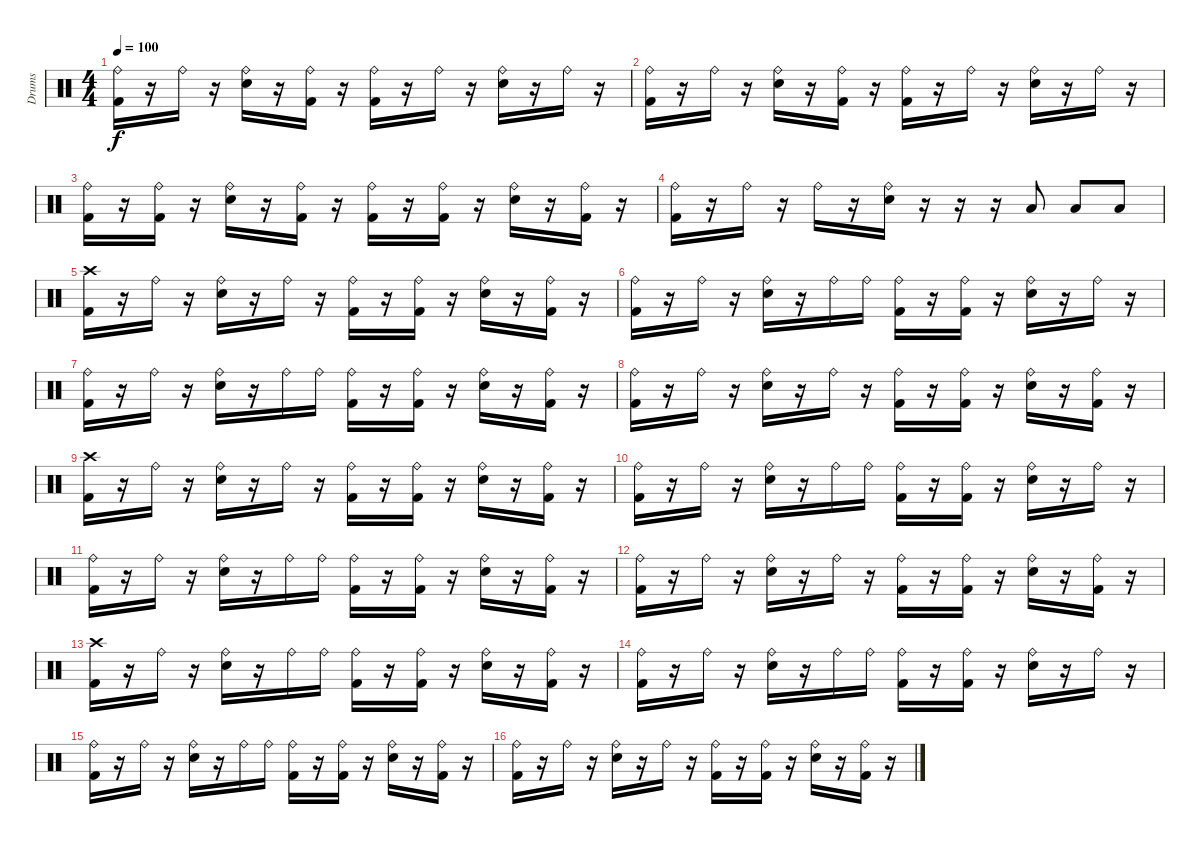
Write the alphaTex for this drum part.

\track ("Drums" "Drums") {instrument percussion}
\staff {score}
\articulation defaults
\ts (4 4)
\tempo 100
\clef neutral
\ks c
("Ride (bell)" "Kick (hit) 2").16{dy f} r.16 "Ride (bell)".16 r.16 ("Ride (bell)" "Snare (hit) 2").16 r.16 ("Ride (bell)" "Kick (hit) 2").16 r.16 ("Ride (bell)" "Kick (hit) 2").16 r.16 "Ride (bell)".16 r.16 ("Ride (bell)" "Snare (hit) 2").16 r.16 "Ride (bell)".16 r.16 |
("Ride (bell)" "Kick (hit) 2").16 r.16 "Ride (bell)".16 r.16 ("Ride (bell)" "Snare (hit) 2").16 r.16 ("Ride (bell)" "Kick (hit) 2").16 r.16 ("Ride (bell)" "Kick (hit) 2").16 r.16 "Ride (bell)".16 r.16 ("Ride (bell)" "Snare (hit) 2").16 r.16 "Ride (bell)".16 r.16 |
("Ride (bell)" "Kick (hit) 2").16 r.16 ("Ride (bell)" "Kick (hit) 2").16 r.16 ("Ride (bell)" "Snare (hit) 2").16 r.16 ("Ride (bell)" "Kick (hit) 2").16 r.16 ("Ride (bell)" "Kick (hit) 2").16 r.16 ("Ride (bell)" "Kick (hit) 2").16 r.16 ("Ride (bell)" "Snare (hit) 2").16 r.16 ("Ride (bell)" "Kick (hit) 2").16 r.16 |
("Ride (bell)" "Kick (hit) 2").16 r.16 "Ride (bell)".16 r.16 "Ride (bell)".16 r.16 ("Ride (bell)" "Snare (hit) 2").16 r.16 r.16 r.16 "Low Floor Tom (hit)".8 "Low Floor Tom (hit)".8 "Low Floor Tom (hit)".8 |
("Crash high (hit)" "Kick (hit) 2").16 r.16 "Ride (bell)".16 r.16 ("Ride (bell)" "Snare (hit) 2").16 r.16 "Ride (bell)".16 r.16 ("Ride (bell)" "Kick (hit) 2").16 r.16 ("Ride (bell)" "Kick (hit) 2").16 r.16 ("Ride (bell)" "Snare (hit) 2").16 r.16 ("Ride (bell)" "Kick (hit) 2").16 r.16 |
("Ride (bell)" "Kick (hit) 2").16 r.16 "Ride (bell)".16 r.16 ("Ride (bell)" "Snare (hit) 2").16 r.16 "Ride (bell)".16 "Ride (bell)".16 ("Ride (bell)" "Kick (hit) 2").16 r.16 ("Ride (bell)" "Kick (hit) 2").16 r.16 ("Ride (bell)" "Snare (hit) 2").16 r.16 "Ride (bell)".16 r.16 |
("Ride (bell)" "Kick (hit) 2").16 r.16 "Ride (bell)".16 r.16 ("Ride (bell)" "Snare (hit) 2").16 r.16 "Ride (bell)".16 "Ride (bell)".16 ("Ride (bell)" "Kick (hit) 2").16 r.16 ("Ride (bell)" "Kick (hit) 2").16 r.16 ("Ride (bell)" "Snare (hit) 2").16 r.16 ("Ride (bell)" "Kick (hit) 2").16 r.16 |
("Ride (bell)" "Kick (hit) 2").16 r.16 "Ride (bell)".16 r.16 ("Ride (bell)" "Snare (hit) 2").16 r.16 "Ride (bell)".16 r.16 ("Ride (bell)" "Kick (hit) 2").16 r.16 ("Ride (bell)" "Kick (hit) 2").16 r.16 ("Ride (bell)" "Snare (hit) 2").16 r.16 ("Ride (bell)" "Kick (hit) 2").16 r.16 |
("Crash high (hit)" "Kick (hit) 2").16 r.16 "Ride (bell)".16 r.16 ("Ride (bell)" "Snare (hit) 2").16 r.16 "Ride (bell)".16 r.16 ("Ride (bell)" "Kick (hit) 2").16 r.16 ("Ride (bell)" "Kick (hit) 2").16 r.16 ("Ride (bell)" "Snare (hit) 2").16 r.16 ("Ride (bell)" "Kick (hit) 2").16 r.16 |
("Ride (bell)" "Kick (hit) 2").16 r.16 "Ride (bell)".16 r.16 ("Ride (bell)" "Snare (hit) 2").16 r.16 "Ride (bell)".16 "Ride (bell)".16 ("Ride (bell)" "Kick (hit) 2").16 r.16 ("Ride (bell)" "Kick (hit) 2").16 r.16 ("Ride (bell)" "Snare (hit) 2").16 r.16 "Ride (bell)".16 r.16 |
("Ride (bell)" "Kick (hit) 2").16 r.16 "Ride (bell)".16 r.16 ("Ride (bell)" "Snare (hit) 2").16 r.16 "Ride (bell)".16 "Ride (bell)".16 ("Ride (bell)" "Kick (hit) 2").16 r.16 ("Ride (bell)" "Kick (hit) 2").16 r.16 ("Ride (bell)" "Snare (hit) 2").16 r.16 ("Ride (bell)" "Kick (hit) 2").16 r.16 |
("Ride (bell)" "Kick (hit) 2").16 r.16 "Ride (bell)".16 r.16 ("Ride (bell)" "Snare (hit) 2").16 r.16 "Ride (bell)".16 r.16 ("Ride (bell)" "Kick (hit) 2").16 r.16 ("Ride (bell)" "Kick (hit) 2").16 r.16 ("Ride (bell)" "Snare (hit) 2").16 r.16 ("Ride (bell)" "Kick (hit) 2").16 r.16 |
("Crash high (hit)" "Kick (hit) 2").16 r.16 "Ride (bell)".16 r.16 ("Ride (bell)" "Snare (hit) 2").16 r.16 "Ride (bell)".16 "Ride (bell)".16 ("Ride (bell)" "Kick (hit) 2").16 r.16 ("Ride (bell)" "Kick (hit) 2").16 r.16 ("Ride (bell)" "Snare (hit) 2").16 r.16 ("Ride (bell)" "Kick (hit) 2").16 r.16 |
("Ride (bell)" "Kick (hit) 2").16 r.16 "Ride (bell)".16 r.16 ("Ride (bell)" "Snare (hit) 2").16 r.16 "Ride (bell)".16 "Ride (bell)".16 ("Ride (bell)" "Kick (hit) 2").16 r.16 ("Ride (bell)" "Kick (hit) 2").16 r.16 ("Ride (bell)" "Snare (hit) 2").16 r.16 "Ride (bell)".16 r.16 |
("Ride (bell)" "Kick (hit) 2").16 r.16 "Ride (bell)".16 r.16 ("Ride (bell)" "Snare (hit) 2").16 r.16 "Ride (bell)".16 "Ride (bell)".16 ("Ride (bell)" "Kick (hit) 2").16 r.16 ("Ride (bell)" "Kick (hit) 2").16 r.16 ("Ride (bell)" "Snare (hit) 2").16 r.16 ("Ride (bell)" "Kick (hit) 2").16 r.16 |
("Ride (bell)" "Kick (hit) 2").16 r.16 "Ride (bell)".16 r.16 ("Ride (bell)" "Snare (hit) 2").16 r.16 "Ride (bell)".16 r.16 ("Ride (bell)" "Kick (hit) 2").16 r.16 ("Ride (bell)" "Kick (hit) 2").16 r.16 ("Ride (bell)" "Snare (hit) 2").16 r.16 ("Ride (bell)" "Kick (hit) 2").16 r.16
